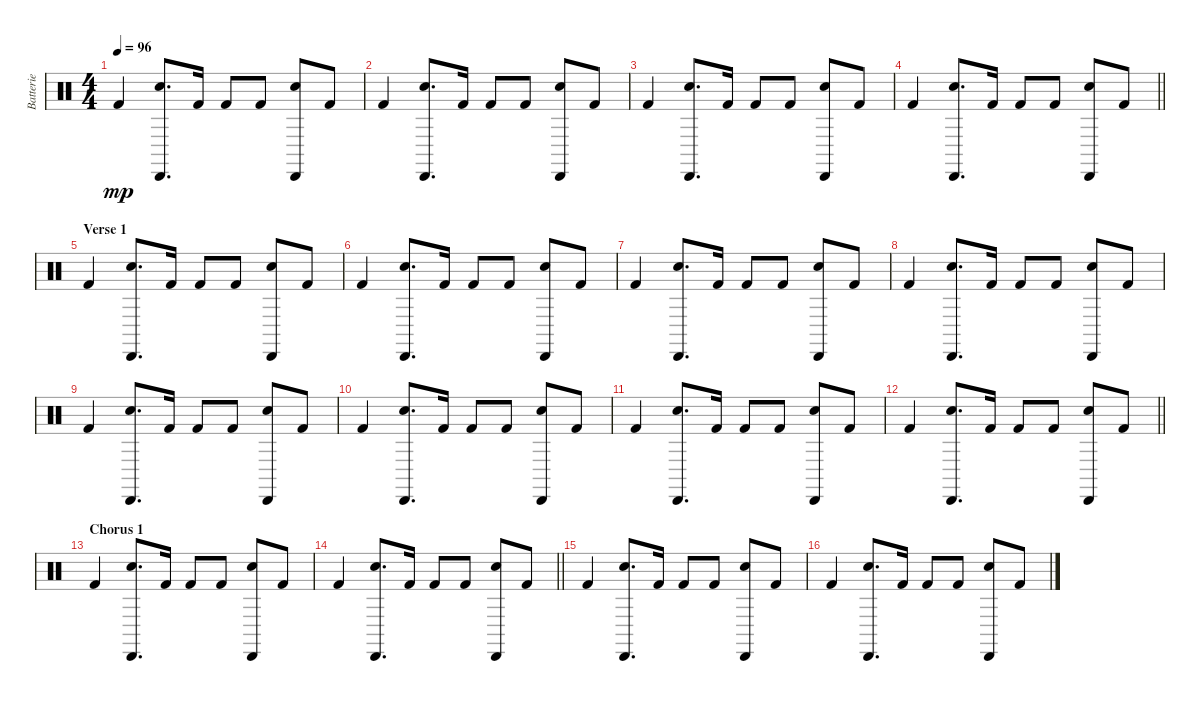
\track ("Batterie" "Batterie") {instrument percussion}
\staff {score}
\articulation defaults
\ts (4 4)
\tempo 96
\clef neutral
\ks c "Kick (hit) 2".4{dy mp}
("Electric Snare (hit)" "Cabasa (hit)").8{d} "Kick (hit) 2".16 "Kick (hit) 2".8 "Kick (hit) 2".8 ("Cabasa (hit)" "Electric Snare (hit)").8 "Kick (hit) 2".8 |
"Kick (hit) 2".4 ("Electric Snare (hit)" "Cabasa (hit)").8{d} "Kick (hit) 2".16 "Kick (hit) 2".8 "Kick (hit) 2".8 ("Cabasa (hit)" "Electric Snare (hit)").8 "Kick (hit) 2".8 |
"Kick (hit) 2".4 ("Electric Snare (hit)" "Cabasa (hit)").8{d} "Kick (hit) 2".16 "Kick (hit) 2".8 "Kick (hit) 2".8 ("Cabasa (hit)" "Electric Snare (hit)").8 "Kick (hit) 2".8 |
\barLineRight lightlight "Kick (hit) 2".4
("Electric Snare (hit)" "Cabasa (hit)").8{d} "Kick (hit) 2".16 "Kick (hit) 2".8 "Kick (hit) 2".8 ("Cabasa (hit)" "Electric Snare (hit)").8 "Kick (hit) 2".8 |
\section ("" "Verse 1")
"Kick (hit) 2".4 ("Electric Snare (hit)" "Cabasa (hit)").8{d} "Kick (hit) 2".16 "Kick (hit) 2".8 "Kick (hit) 2".8 ("Cabasa (hit)" "Electric Snare (hit)").8 "Kick (hit) 2".8 |
"Kick (hit) 2".4 ("Electric Snare (hit)" "Cabasa (hit)").8{d} "Kick (hit) 2".16 "Kick (hit) 2".8 "Kick (hit) 2".8 ("Cabasa (hit)" "Electric Snare (hit)").8 "Kick (hit) 2".8 |
"Kick (hit) 2".4 ("Electric Snare (hit)" "Cabasa (hit)").8{d} "Kick (hit) 2".16 "Kick (hit) 2".8 "Kick (hit) 2".8 ("Cabasa (hit)" "Electric Snare (hit)").8 "Kick (hit) 2".8 |
"Kick (hit) 2".4 ("Electric Snare (hit)" "Cabasa (hit)").8{d} "Kick (hit) 2".16 "Kick (hit) 2".8 "Kick (hit) 2".8 ("Cabasa (hit)" "Electric Snare (hit)").8 "Kick (hit) 2".8 |
"Kick (hit) 2".4 ("Electric Snare (hit)" "Cabasa (hit)").8{d} "Kick (hit) 2".16 "Kick (hit) 2".8 "Kick (hit) 2".8 ("Cabasa (hit)" "Electric Snare (hit)").8 "Kick (hit) 2".8 |
"Kick (hit) 2".4 ("Electric Snare (hit)" "Cabasa (hit)").8{d} "Kick (hit) 2".16 "Kick (hit) 2".8 "Kick (hit) 2".8 ("Cabasa (hit)" "Electric Snare (hit)").8 "Kick (hit) 2".8 |
"Kick (hit) 2".4 ("Electric Snare (hit)" "Cabasa (hit)").8{d} "Kick (hit) 2".16 "Kick (hit) 2".8 "Kick (hit) 2".8 ("Cabasa (hit)" "Electric Snare (hit)").8 "Kick (hit) 2".8 |
\barLineRight lightlight "Kick (hit) 2".4
("Electric Snare (hit)" "Cabasa (hit)").8{d} "Kick (hit) 2".16 "Kick (hit) 2".8 "Kick (hit) 2".8 ("Cabasa (hit)" "Electric Snare (hit)").8 "Kick (hit) 2".8 |
\section ("" "Chorus 1")
"Kick (hit) 2".4 ("Electric Snare (hit)" "Cabasa (hit)").8{d} "Kick (hit) 2".16 "Kick (hit) 2".8 "Kick (hit) 2".8 ("Cabasa (hit)" "Electric Snare (hit)").8 "Kick (hit) 2".8 |
\barLineRight lightlight "Kick (hit) 2".4
("Electric Snare (hit)" "Cabasa (hit)").8{d} "Kick (hit) 2".16 "Kick (hit) 2".8 "Kick (hit) 2".8 ("Cabasa (hit)" "Electric Snare (hit)").8 "Kick (hit) 2".8 |
"Kick (hit) 2".4 ("Electric Snare (hit)" "Cabasa (hit)").8{d} "Kick (hit) 2".16 "Kick (hit) 2".8 "Kick (hit) 2".8 ("Cabasa (hit)" "Electric Snare (hit)").8 "Kick (hit) 2".8 |
"Kick (hit) 2".4 ("Electric Snare (hit)" "Cabasa (hit)").8{d} "Kick (hit) 2".16 "Kick (hit) 2".8 "Kick (hit) 2".8 ("Cabasa (hit)" "Electric Snare (hit)").8 "Kick (hit) 2".8
